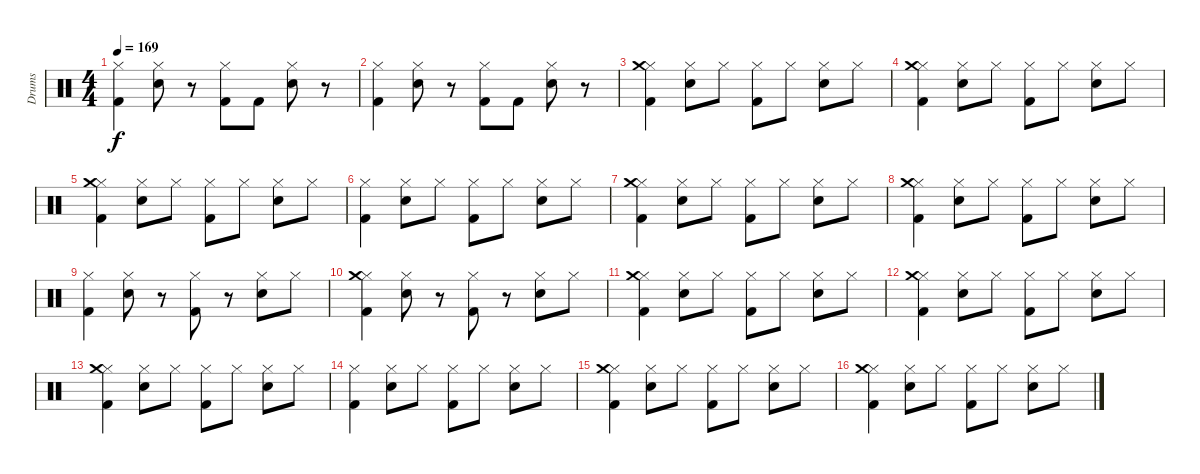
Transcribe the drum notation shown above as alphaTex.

\track ("Drums" "Drums") {instrument percussion}
\staff {score}
\articulation defaults
\ts (4 4)
\tempo 169
\clef neutral
\ks c
("Hi-Hat (closed)" "Kick (hit) 2").4{dy f} ("Hi-Hat (closed)" "Snare (hit) 2").8 r.8 ("Hi-Hat (closed)" "Kick (hit) 2").8 "Kick (hit) 2".8 ("Hi-Hat (closed)" "Snare (hit) 2").8 r.8 |
("Hi-Hat (closed)" "Kick (hit) 2").4 ("Hi-Hat (closed)" "Snare (hit) 2").8 r.8 ("Hi-Hat (closed)" "Kick (hit) 2").8 "Kick (hit) 2".8 ("Hi-Hat (closed)" "Snare (hit) 2").8 r.8 |
("Hi-Hat (closed)" "Kick (hit) 2" "Crash medium (hit)").4 ("Hi-Hat (closed)" "Snare (hit) 2").8 "Hi-Hat (closed)".8 ("Hi-Hat (closed)" "Kick (hit) 2").8 "Hi-Hat (closed)".8 ("Hi-Hat (closed)" "Snare (hit) 2").8 "Hi-Hat (closed)".8 |
("Hi-Hat (closed)" "Kick (hit) 2" "Crash medium (hit)").4 ("Hi-Hat (closed)" "Snare (hit) 2").8 "Hi-Hat (closed)".8 ("Hi-Hat (closed)" "Kick (hit) 2").8 "Hi-Hat (closed)".8 ("Hi-Hat (closed)" "Snare (hit) 2").8 "Hi-Hat (closed)".8 |
("Hi-Hat (closed)" "Kick (hit) 2" "Crash medium (hit)").4 ("Hi-Hat (closed)" "Snare (hit) 2").8 "Hi-Hat (closed)".8 ("Hi-Hat (closed)" "Kick (hit) 2").8 "Hi-Hat (closed)".8 ("Hi-Hat (closed)" "Snare (hit) 2").8 "Hi-Hat (closed)".8 |
("Hi-Hat (closed)" "Kick (hit) 2").4 ("Hi-Hat (closed)" "Snare (hit) 2").8 "Hi-Hat (closed)".8 ("Hi-Hat (closed)" "Kick (hit) 2").8 "Hi-Hat (closed)".8 ("Hi-Hat (closed)" "Snare (hit) 2").8 "Hi-Hat (closed)".8 |
("Hi-Hat (closed)" "Kick (hit) 2" "Crash medium (hit)").4 ("Hi-Hat (closed)" "Snare (hit) 2").8 "Hi-Hat (closed)".8 ("Hi-Hat (closed)" "Kick (hit) 2").8 "Hi-Hat (closed)".8 ("Hi-Hat (closed)" "Snare (hit) 2").8 "Hi-Hat (closed)".8 |
("Hi-Hat (closed)" "Kick (hit) 2" "Crash medium (hit)").4 ("Hi-Hat (closed)" "Snare (hit) 2").8 "Hi-Hat (closed)".8 ("Hi-Hat (closed)" "Kick (hit) 2").8 "Hi-Hat (closed)".8 ("Hi-Hat (closed)" "Snare (hit) 2").8 "Hi-Hat (closed)".8 |
("Hi-Hat (closed)" "Kick (hit) 2").4 ("Hi-Hat (closed)" "Snare (hit) 2").8 r.8 ("Hi-Hat (closed)" "Kick (hit) 2").8 r.8 ("Hi-Hat (closed)" "Snare (hit) 2").8 "Hi-Hat (closed)".8 |
("Hi-Hat (closed)" "Kick (hit) 2" "Crash medium (hit)").4 ("Hi-Hat (closed)" "Snare (hit) 2").8 r.8 ("Hi-Hat (closed)" "Kick (hit) 2").8 r.8 ("Hi-Hat (closed)" "Snare (hit) 2").8 "Hi-Hat (closed)".8 |
("Hi-Hat (closed)" "Kick (hit) 2" "Crash medium (hit)").4 ("Hi-Hat (closed)" "Snare (hit) 2").8 "Hi-Hat (closed)".8 ("Hi-Hat (closed)" "Kick (hit) 2").8 "Hi-Hat (closed)".8 ("Hi-Hat (closed)" "Snare (hit) 2").8 "Hi-Hat (closed)".8 |
("Hi-Hat (closed)" "Kick (hit) 2" "Crash medium (hit)").4 ("Hi-Hat (closed)" "Snare (hit) 2").8 "Hi-Hat (closed)".8 ("Hi-Hat (closed)" "Kick (hit) 2").8 "Hi-Hat (closed)".8 ("Hi-Hat (closed)" "Snare (hit) 2").8 "Hi-Hat (closed)".8 |
("Hi-Hat (closed)" "Kick (hit) 2" "Crash medium (hit)").4 ("Hi-Hat (closed)" "Snare (hit) 2").8 "Hi-Hat (closed)".8 ("Hi-Hat (closed)" "Kick (hit) 2").8 "Hi-Hat (closed)".8 ("Hi-Hat (closed)" "Snare (hit) 2").8 "Hi-Hat (closed)".8 |
("Hi-Hat (closed)" "Kick (hit) 2").4 ("Hi-Hat (closed)" "Snare (hit) 2").8 "Hi-Hat (closed)".8 ("Hi-Hat (closed)" "Kick (hit) 2").8 "Hi-Hat (closed)".8 ("Hi-Hat (closed)" "Snare (hit) 2").8 "Hi-Hat (closed)".8 |
("Hi-Hat (closed)" "Kick (hit) 2" "Crash medium (hit)").4 ("Hi-Hat (closed)" "Snare (hit) 2").8 "Hi-Hat (closed)".8 ("Hi-Hat (closed)" "Kick (hit) 2").8 "Hi-Hat (closed)".8 ("Hi-Hat (closed)" "Snare (hit) 2").8 "Hi-Hat (closed)".8 |
("Hi-Hat (closed)" "Kick (hit) 2" "Crash medium (hit)").4 ("Hi-Hat (closed)" "Snare (hit) 2").8 "Hi-Hat (closed)".8 ("Hi-Hat (closed)" "Kick (hit) 2").8 "Hi-Hat (closed)".8 ("Hi-Hat (closed)" "Snare (hit) 2").8 "Hi-Hat (closed)".8
